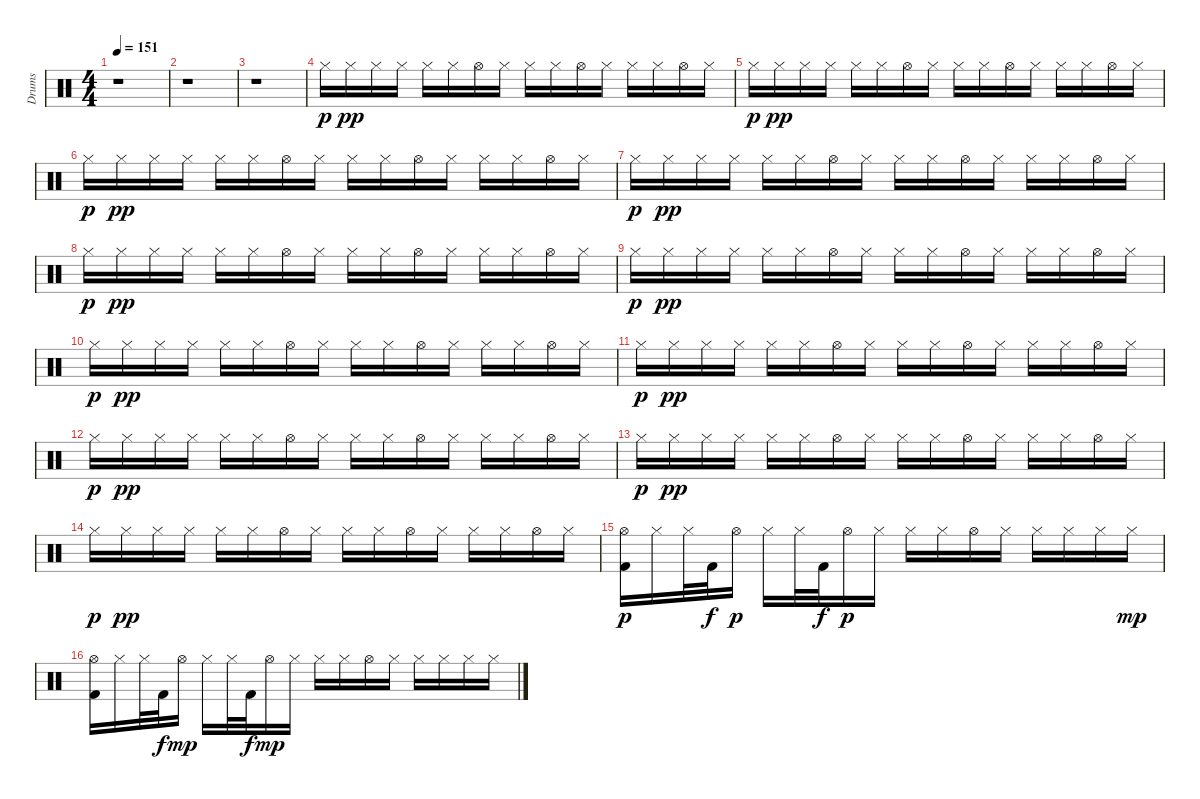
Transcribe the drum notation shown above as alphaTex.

\track ("Drums" "Drums") {instrument percussion}
\staff {score}
\articulation defaults
\ts (4 4)
\tempo 151
\clef neutral
\ks c
r.1{dy p} |
r.1 |
r.1 |
"Hi-Hat (closed)".16 "Hi-Hat (closed)".16{dy pp} "Hi-Hat (closed)".16 "Hi-Hat (closed)".16 "Hi-Hat (closed)".16 "Hi-Hat (closed)".16 "Hi-Hat (open)".16 "Hi-Hat (closed)".16 "Hi-Hat (closed)".16 "Hi-Hat (closed)".16 "Hi-Hat (open)".16 "Hi-Hat (closed)".16 "Hi-Hat (closed)".16 "Hi-Hat (closed)".16 "Hi-Hat (open)".16 "Hi-Hat (closed)".16 |
"Hi-Hat (closed)".16{dy p} "Hi-Hat (closed)".16{dy pp} "Hi-Hat (closed)".16 "Hi-Hat (closed)".16 "Hi-Hat (closed)".16 "Hi-Hat (closed)".16 "Hi-Hat (open)".16 "Hi-Hat (closed)".16 "Hi-Hat (closed)".16 "Hi-Hat (closed)".16 "Hi-Hat (open)".16 "Hi-Hat (closed)".16 "Hi-Hat (closed)".16 "Hi-Hat (closed)".16 "Hi-Hat (open)".16 "Hi-Hat (closed)".16 |
"Hi-Hat (closed)".16{dy p} "Hi-Hat (closed)".16{dy pp} "Hi-Hat (closed)".16 "Hi-Hat (closed)".16 "Hi-Hat (closed)".16 "Hi-Hat (closed)".16 "Hi-Hat (open)".16 "Hi-Hat (closed)".16 "Hi-Hat (closed)".16 "Hi-Hat (closed)".16 "Hi-Hat (open)".16 "Hi-Hat (closed)".16 "Hi-Hat (closed)".16 "Hi-Hat (closed)".16 "Hi-Hat (open)".16 "Hi-Hat (closed)".16 |
"Hi-Hat (closed)".16{dy p} "Hi-Hat (closed)".16{dy pp} "Hi-Hat (closed)".16 "Hi-Hat (closed)".16 "Hi-Hat (closed)".16 "Hi-Hat (closed)".16 "Hi-Hat (open)".16 "Hi-Hat (closed)".16 "Hi-Hat (closed)".16 "Hi-Hat (closed)".16 "Hi-Hat (open)".16 "Hi-Hat (closed)".16 "Hi-Hat (closed)".16 "Hi-Hat (closed)".16 "Hi-Hat (open)".16 "Hi-Hat (closed)".16 |
"Hi-Hat (closed)".16{dy p} "Hi-Hat (closed)".16{dy pp} "Hi-Hat (closed)".16 "Hi-Hat (closed)".16 "Hi-Hat (closed)".16 "Hi-Hat (closed)".16 "Hi-Hat (open)".16 "Hi-Hat (closed)".16 "Hi-Hat (closed)".16 "Hi-Hat (closed)".16 "Hi-Hat (open)".16 "Hi-Hat (closed)".16 "Hi-Hat (closed)".16 "Hi-Hat (closed)".16 "Hi-Hat (open)".16 "Hi-Hat (closed)".16 |
"Hi-Hat (closed)".16{dy p} "Hi-Hat (closed)".16{dy pp} "Hi-Hat (closed)".16 "Hi-Hat (closed)".16 "Hi-Hat (closed)".16 "Hi-Hat (closed)".16 "Hi-Hat (open)".16 "Hi-Hat (closed)".16 "Hi-Hat (closed)".16 "Hi-Hat (closed)".16 "Hi-Hat (open)".16 "Hi-Hat (closed)".16 "Hi-Hat (closed)".16 "Hi-Hat (closed)".16 "Hi-Hat (open)".16 "Hi-Hat (closed)".16 |
"Hi-Hat (closed)".16{dy p} "Hi-Hat (closed)".16{dy pp} "Hi-Hat (closed)".16 "Hi-Hat (closed)".16 "Hi-Hat (closed)".16 "Hi-Hat (closed)".16 "Hi-Hat (open)".16 "Hi-Hat (closed)".16 "Hi-Hat (closed)".16 "Hi-Hat (closed)".16 "Hi-Hat (open)".16 "Hi-Hat (closed)".16 "Hi-Hat (closed)".16 "Hi-Hat (closed)".16 "Hi-Hat (open)".16 "Hi-Hat (closed)".16 |
"Hi-Hat (closed)".16{dy p} "Hi-Hat (closed)".16{dy pp} "Hi-Hat (closed)".16 "Hi-Hat (closed)".16 "Hi-Hat (closed)".16 "Hi-Hat (closed)".16 "Hi-Hat (open)".16 "Hi-Hat (closed)".16 "Hi-Hat (closed)".16 "Hi-Hat (closed)".16 "Hi-Hat (open)".16 "Hi-Hat (closed)".16 "Hi-Hat (closed)".16 "Hi-Hat (closed)".16 "Hi-Hat (open)".16 "Hi-Hat (closed)".16 |
"Hi-Hat (closed)".16{dy p} "Hi-Hat (closed)".16{dy pp} "Hi-Hat (closed)".16 "Hi-Hat (closed)".16 "Hi-Hat (closed)".16 "Hi-Hat (closed)".16 "Hi-Hat (open)".16 "Hi-Hat (closed)".16 "Hi-Hat (closed)".16 "Hi-Hat (closed)".16 "Hi-Hat (open)".16 "Hi-Hat (closed)".16 "Hi-Hat (closed)".16 "Hi-Hat (closed)".16 "Hi-Hat (open)".16 "Hi-Hat (closed)".16 |
"Hi-Hat (closed)".16{dy p} "Hi-Hat (closed)".16{dy pp} "Hi-Hat (closed)".16 "Hi-Hat (closed)".16 "Hi-Hat (closed)".16 "Hi-Hat (closed)".16 "Hi-Hat (open)".16 "Hi-Hat (closed)".16 "Hi-Hat (closed)".16 "Hi-Hat (closed)".16 "Hi-Hat (open)".16 "Hi-Hat (closed)".16 "Hi-Hat (closed)".16 "Hi-Hat (closed)".16 "Hi-Hat (open)".16 "Hi-Hat (closed)".16 |
"Hi-Hat (closed)".16{dy p} "Hi-Hat (closed)".16{dy pp} "Hi-Hat (closed)".16 "Hi-Hat (closed)".16 "Hi-Hat (closed)".16 "Hi-Hat (closed)".16 "Hi-Hat (open)".16 "Hi-Hat (closed)".16 "Hi-Hat (closed)".16 "Hi-Hat (closed)".16 "Hi-Hat (open)".16 "Hi-Hat (closed)".16 "Hi-Hat (closed)".16 "Hi-Hat (closed)".16 "Hi-Hat (open)".16 "Hi-Hat (closed)".16 |
("Hi-Hat (open)" "Kick (hit) 2").16{dy p} "Hi-Hat (closed)".16 "Hi-Hat (closed)".32 "Kick (hit) 2".32{dy f} "Hi-Hat (open)".16{dy p} "Hi-Hat (closed)".16 "Hi-Hat (closed)".32 "Kick (hit) 2".32{dy f} "Hi-Hat (open)".16{dy p} "Hi-Hat (closed)".16 "Hi-Hat (closed)".16 "Hi-Hat (closed)".16 "Hi-Hat (open)".16 "Hi-Hat (closed)".16 "Hi-Hat (closed)".16 "Hi-Hat (closed)".16 "Hi-Hat (closed)".16 "Hi-Hat (closed)".16{dy mp} |
("Hi-Hat (open)" "Kick (hit) 2").16 "Hi-Hat (closed)".16 "Hi-Hat (closed)".32 "Kick (hit) 2".32{dy f} "Hi-Hat (open)".16{dy mp} "Hi-Hat (closed)".16 "Hi-Hat (closed)".32 "Kick (hit) 2".32{dy f} "Hi-Hat (open)".16{dy mp} "Hi-Hat (closed)".16 "Hi-Hat (closed)".16 "Hi-Hat (closed)".16 "Hi-Hat (open)".16 "Hi-Hat (closed)".16 "Hi-Hat (closed)".16 "Hi-Hat (closed)".16 "Hi-Hat (closed)".16 "Hi-Hat (closed)".16
